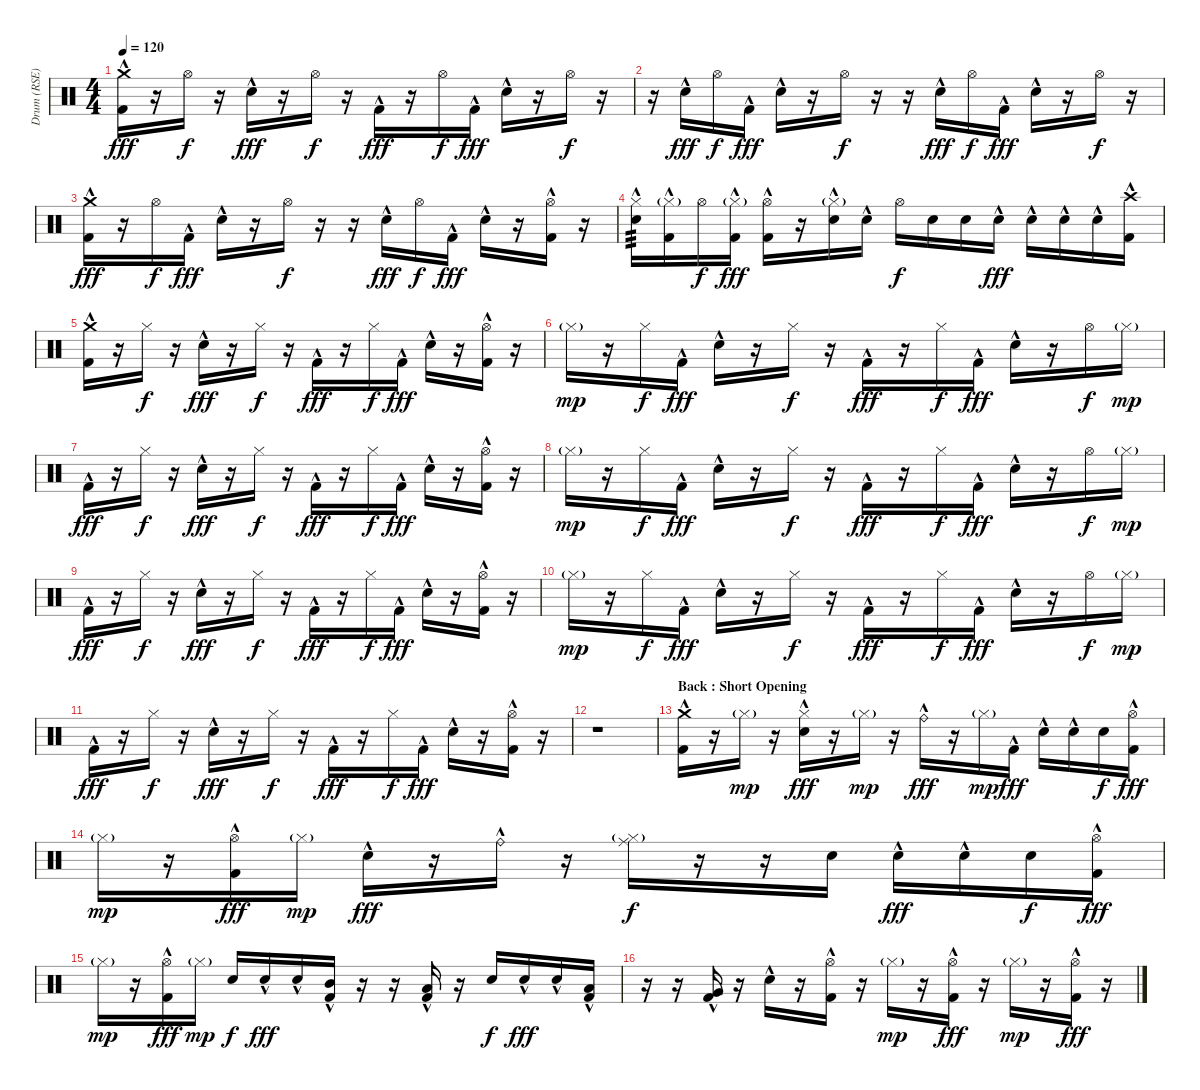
\track ("Drum (RSE)" "Drum (RSE)") {instrument percussion}
\staff {score}
\articulation defaults
\ts (4 4)
\tempo 120
\clef neutral
\ks c
("Crash medium (hit)" "Kick (hit) 2"{hac}).16{dy fff} r.16 "Hi-Hat (open)".16{dy f} r.16 "Snare (hit) 2"{hac}.16{dy fff} r.16 "Hi-Hat (open)".16{dy f} r.16 "Kick (hit) 2"{hac}.16{dy fff} r.16 "Hi-Hat (open)".16{dy f} "Kick (hit) 2"{hac}.16{dy fff} "Snare (hit) 2"{hac}.16 r.16 "Hi-Hat (open)".16{dy f} r.16 |
r.16 "Snare (hit) 2"{hac}.16{dy fff} "Hi-Hat (open)".16{dy f} "Kick (hit) 2"{hac}.16{dy fff} "Snare (hit) 2"{hac}.16 r.16 "Hi-Hat (open)".16{dy f} r.16 r.16 "Snare (hit) 2"{hac}.16{dy fff} "Hi-Hat (open)".16{dy f} "Kick (hit) 2"{hac}.16{dy fff} "Snare (hit) 2"{hac}.16 r.16 "Hi-Hat (open)".16{dy f} r.16 |
("Crash medium (hit)" "Kick (hit) 2"{hac}).16{dy fff} r.16 "Hi-Hat (open)".16{dy f} "Kick (hit) 2"{hac}.16{dy fff} "Snare (hit) 2"{hac}.16 r.16 "Hi-Hat (open)".16{dy f} r.16 r.16 "Snare (hit) 2"{hac}.16{dy fff} "Hi-Hat (open)".16{dy f} "Kick (hit) 2"{hac}.16{dy fff} "Snare (hit) 2"{hac}.16 r.16 ("Hi-Hat (open)" "Kick (hit) 2"{hac}).16 r.16 |
("Hi-Hat (closed)" "Snare (hit) 2"{hac}).16{tp 3} ("Hi-Hat (closed)"{g} "Kick (hit) 2"{hac}).16 "Hi-Hat (open)".16{dy f} ("Hi-Hat (closed)"{g} "Kick (hit) 2"{hac}).16{dy fff} ("Hi-Hat (open)" "Kick (hit) 2"{hac}).16 r.16 ("Hi-Hat (closed)"{g} "Snare (hit) 2"{hac}).16 "Snare (hit) 2"{hac}.16 "Hi-Hat (open)".16{dy f} "Snare (hit) 2".16 "Snare (hit) 2".16 "Snare (hit) 2"{hac}.16{dy fff} "Snare (hit) 2"{hac}.16 "Snare (hit) 2"{hac}.16 "Snare (hit) 2"{hac}.16 ("Crash high (hit)" "Kick (hit) 2"{hac}).16 |
("Crash medium (hit)" "Kick (hit) 2"{hac}).16 r.16 "Hi-Hat (closed)".16{dy f} r.16 "Snare (hit) 2"{hac}.16{dy fff} r.16 "Hi-Hat (closed)".16{dy f} r.16 "Kick (hit) 2"{hac}.16{dy fff} r.16 "Hi-Hat (closed)".16{dy f} "Kick (hit) 2"{hac}.16{dy fff} "Snare (hit) 2"{hac}.16 r.16 ("Hi-Hat (open)" "Kick (hit) 2"{hac}).16 r.16 |
"Hi-Hat (closed)"{g}.16{dy mp} r.16 "Hi-Hat (closed)".16{dy f} "Kick (hit) 2"{hac}.16{dy fff} "Snare (hit) 2"{hac}.16 r.16 "Hi-Hat (closed)".16{dy f} r.16 "Kick (hit) 2"{hac}.16{dy fff} r.16 "Hi-Hat (closed)".16{dy f} "Kick (hit) 2"{hac}.16{dy fff} "Snare (hit) 2"{hac}.16 r.16 "Hi-Hat (open)".16{dy f} "Hi-Hat (closed)"{g}.16{dy mp} |
"Kick (hit) 2"{hac}.16{dy fff} r.16 "Hi-Hat (closed)".16{dy f} r.16 "Snare (hit) 2"{hac}.16{dy fff} r.16 "Hi-Hat (closed)".16{dy f} r.16 "Kick (hit) 2"{hac}.16{dy fff} r.16 "Hi-Hat (closed)".16{dy f} "Kick (hit) 2"{hac}.16{dy fff} "Snare (hit) 2"{hac}.16 r.16 ("Hi-Hat (open)" "Kick (hit) 2"{hac}).16 r.16 |
"Hi-Hat (closed)"{g}.16{dy mp} r.16 "Hi-Hat (closed)".16{dy f} "Kick (hit) 2"{hac}.16{dy fff} "Snare (hit) 2"{hac}.16 r.16 "Hi-Hat (closed)".16{dy f} r.16 "Kick (hit) 2"{hac}.16{dy fff} r.16 "Hi-Hat (closed)".16{dy f} "Kick (hit) 2"{hac}.16{dy fff} "Snare (hit) 2"{hac}.16 r.16 "Hi-Hat (open)".16{dy f} "Hi-Hat (closed)"{g}.16{dy mp} |
"Kick (hit) 2"{hac}.16{dy fff} r.16 "Hi-Hat (closed)".16{dy f} r.16 "Snare (hit) 2"{hac}.16{dy fff} r.16 "Hi-Hat (closed)".16{dy f} r.16 "Kick (hit) 2"{hac}.16{dy fff} r.16 "Hi-Hat (closed)".16{dy f} "Kick (hit) 2"{hac}.16{dy fff} "Snare (hit) 2"{hac}.16 r.16 ("Hi-Hat (open)" "Kick (hit) 2"{hac}).16 r.16 |
"Hi-Hat (closed)"{g}.16{dy mp} r.16 "Hi-Hat (closed)".16{dy f} "Kick (hit) 2"{hac}.16{dy fff} "Snare (hit) 2"{hac}.16 r.16 "Hi-Hat (closed)".16{dy f} r.16 "Kick (hit) 2"{hac}.16{dy fff} r.16 "Hi-Hat (closed)".16{dy f} "Kick (hit) 2"{hac}.16{dy fff} "Snare (hit) 2"{hac}.16 r.16 "Hi-Hat (open)".16{dy f} "Hi-Hat (closed)"{g}.16{dy mp} |
"Kick (hit) 2"{hac}.16{dy fff} r.16 "Hi-Hat (closed)".16{dy f} r.16 "Snare (hit) 2"{hac}.16{dy fff} r.16 "Hi-Hat (closed)".16{dy f} r.16 "Kick (hit) 2"{hac}.16{dy fff} r.16 "Hi-Hat (closed)".16{dy f} "Kick (hit) 2"{hac}.16{dy fff} "Snare (hit) 2"{hac}.16 r.16 ("Hi-Hat (open)" "Kick (hit) 2"{hac}).16 r.16 |
r.1 |
\section ("" "Back : Short Opening")
("Crash medium (hit)" "Kick (hit) 2"{hac}).16 r.16 "Hi-Hat (closed)"{g}.16{dy mp} r.16 ("Hi-Hat (closed)" "Snare (hit) 2"{hac}).16{dy fff} r.16 "Hi-Hat (closed)"{g}.16{dy mp} r.16 "Ride (bell)"{hac}.16{dy fff} r.16 "Hi-Hat (closed)"{g}.16{dy mp} "Kick (hit) 2"{hac}.16{dy fff} "Snare (hit) 2"{hac}.16 "Snare (hit) 2"{hac}.16 "Snare (hit) 2".16{dy f} ("Hi-Hat (open)" "Kick (hit) 2"{hac}).16{dy fff} |
"Hi-Hat (closed)"{g}.16{dy mp} r.16 ("Hi-Hat (open)" "Kick (hit) 2"{hac}).16{dy fff} "Hi-Hat (closed)"{g}.16{dy mp} "Snare (hit) 2"{hac}.16{dy fff} r.16 "Ride (bell)"{hac}.16 r.16 ("Hi-Hat (closed)"{g} "Ride (middle)").16{dy f} r.16 r.16 "Snare (hit) 2".16 "Snare (hit) 2"{hac}.16{dy fff} "Snare (hit) 2"{hac}.16 "Snare (hit) 2".16{dy f} ("Hi-Hat (open)" "Kick (hit) 2"{hac}).16{dy fff} |
"Hi-Hat (closed)"{g}.16{dy mp} r.16 ("Hi-Hat (open)" "Kick (hit) 2"{hac}).16{dy fff} "Hi-Hat (closed)"{g}.16{dy mp} "Snare (hit) 2".16{dy f} "Snare (hit) 2"{hac}.16{dy fff} "Snare (hit) 2"{hac}.16 ("Mid Tom (hit)"{hac} "Kick (hit) 2"{hac}).16 r.16 r.16 ("Low Tom (hit)"{hac} "Kick (hit) 2"{hac}).16 r.16 "Snare (hit) 2".16{dy f} "Snare (hit) 2"{hac}.16{dy fff} "Snare (hit) 2"{hac}.16 ("Low Tom (hit)"{hac} "Kick (hit) 2"{hac}).16 |
r.16 r.16 ("Very Low Tom (hit)"{hac} "Kick (hit) 2"{hac}).16 r.16 "Snare (hit) 2"{hac}.16 r.16 ("Hi-Hat (open)" "Kick (hit) 2"{hac}).16 r.16 "Hi-Hat (closed)"{g}.16{dy mp} r.16 ("Hi-Hat (open)" "Kick (hit) 2"{hac}).16{dy fff} r.16 "Hi-Hat (closed)"{g}.16{dy mp} r.16 ("Hi-Hat (open)" "Kick (hit) 2"{hac}).16{dy fff} r.16
